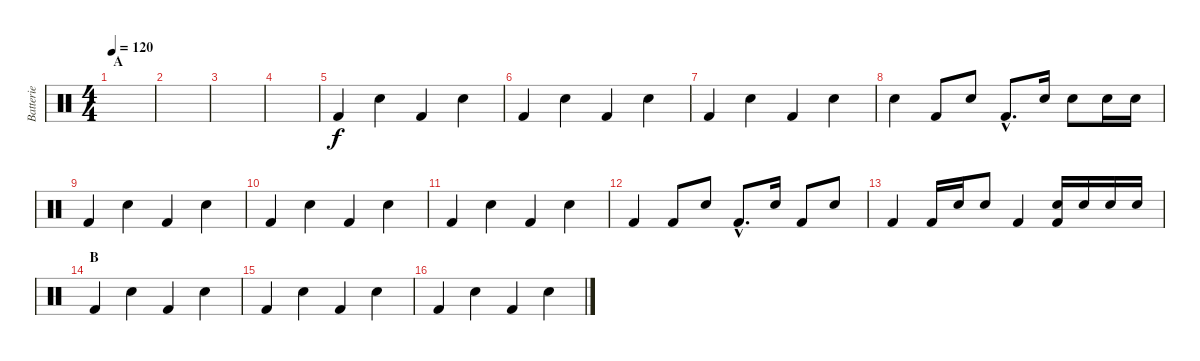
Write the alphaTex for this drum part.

\track ("Batterie" "Batterie") {instrument percussion}
\staff {score}
\articulation defaults
\ts (4 4)
\section ("" "A")
\tempo 120
\clef neutral
\ks c
|
|
|
|
"Kick (hit) 2".4 "Electric Snare (hit)".4 "Kick (hit) 2".4 "Electric Snare (hit)".4 |
"Kick (hit) 2".4 "Electric Snare (hit)".4 "Kick (hit) 2".4 "Electric Snare (hit)".4 |
"Kick (hit) 2".4 "Electric Snare (hit)".4 "Kick (hit) 2".4 "Electric Snare (hit)".4 |
"Electric Snare (hit)".4 "Kick (hit) 2".8 "Electric Snare (hit)".8 "Kick (hit) 2"{hac}.8{d} "Electric Snare (hit)".16 "Electric Snare (hit)".8 "Electric Snare (hit)".16 "Electric Snare (hit)".16 |
"Kick (hit) 2".4 "Electric Snare (hit)".4 "Kick (hit) 2".4 "Electric Snare (hit)".4 |
"Kick (hit) 2".4 "Electric Snare (hit)".4 "Kick (hit) 2".4 "Electric Snare (hit)".4 |
"Kick (hit) 2".4 "Electric Snare (hit)".4 "Kick (hit) 2".4 "Electric Snare (hit)".4 |
"Kick (hit) 2".4 "Kick (hit) 2".8 "Electric Snare (hit)".8 "Kick (hit) 2"{hac}.8{d} "Electric Snare (hit)".16 "Kick (hit) 2".8 "Electric Snare (hit)".8 |
"Kick (hit) 2".4 "Kick (hit) 2".16 "Electric Snare (hit)".16 "Electric Snare (hit)".8 "Kick (hit) 2".4 ("Electric Snare (hit)" "Kick (hit) 2").16 "Electric Snare (hit)".16 "Electric Snare (hit)".16 "Electric Snare (hit)".16 |
\section ("" "B")
"Kick (hit) 2".4 "Electric Snare (hit)".4 "Kick (hit) 2".4 "Electric Snare (hit)".4 |
"Kick (hit) 2".4 "Electric Snare (hit)".4 "Kick (hit) 2".4 "Electric Snare (hit)".4 |
"Kick (hit) 2".4 "Electric Snare (hit)".4 "Kick (hit) 2".4 "Electric Snare (hit)".4
